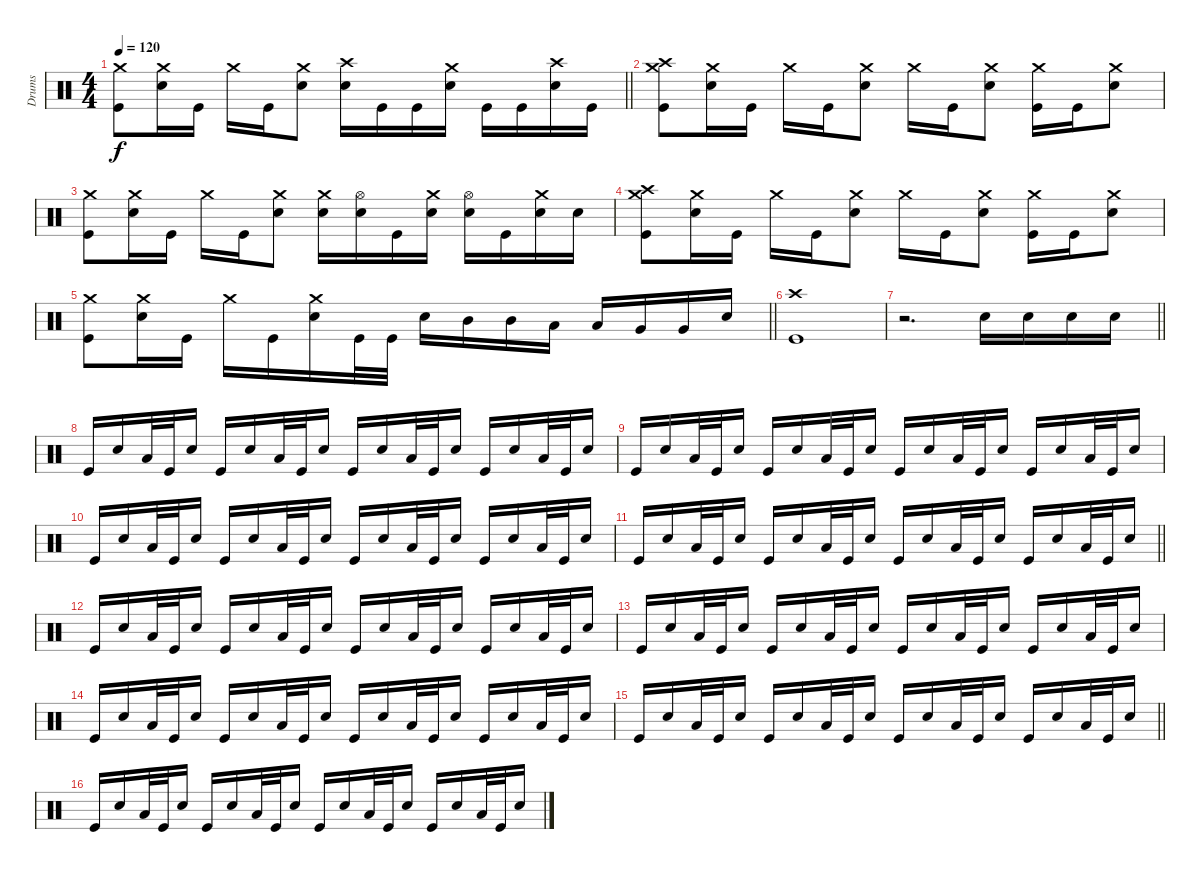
\track ("Drums" "Drums") {instrument percussion}
\staff
\articulation defaults
\ts (4 4)
\tempo 120
\clef neutral
\barLineRight lightlight
\ks c
("Crash medium (hit)" "Kick (hit)").8{dy f} ("Crash medium (hit)" "Electric Snare (hit)").16 "Kick (hit)".16 "Crash medium (hit)".16 "Kick (hit)".16 ("Crash medium (hit)" "Electric Snare (hit)").8 ("Crash high (hit)" "Electric Snare (hit)").16 "Kick (hit)".16 "Kick (hit)".16 ("Crash medium (hit)" "Electric Snare (hit)").16 "Kick (hit)".16 "Kick (hit)".16 ("Crash high (hit)" "Electric Snare (hit)").16 "Kick (hit)".16 |
("Crash high (hit)" "Crash medium (hit)" "Kick (hit)").8 ("Crash medium (hit)" "Electric Snare (hit)").16 "Kick (hit)".16 "Crash medium (hit)".16 "Kick (hit)".16 ("Crash medium (hit)" "Electric Snare (hit)").8 "Crash medium (hit)".16 "Kick (hit)".16 ("Crash medium (hit)" "Electric Snare (hit)").8 ("Crash medium (hit)" "Kick (hit)").16 "Kick (hit)".16 ("Crash medium (hit)" "Electric Snare (hit)").8 |
("Crash medium (hit)" "Kick (hit)").8 ("Crash medium (hit)" "Electric Snare (hit)").16 "Kick (hit)".16 "Crash medium (hit)".16 "Kick (hit)".16 ("Crash medium (hit)" "Electric Snare (hit)").8 ("Crash medium (hit)" "Electric Snare (hit)").16 ("Hi-Hat (open)" "Electric Snare (hit)").16 "Kick (hit)".16 ("Crash medium (hit)" "Electric Snare (hit)").16 ("Hi-Hat (open)" "Electric Snare (hit)").16 "Kick (hit)".16 ("Crash medium (hit)" "Electric Snare (hit)").16 "Electric Snare (hit)".16 |
("Crash high (hit)" "Crash medium (hit)" "Kick (hit)").8 ("Crash medium (hit)" "Electric Snare (hit)").16 "Kick (hit)".16 "Crash medium (hit)".16 "Kick (hit)".16 ("Crash medium (hit)" "Electric Snare (hit)").8 "Crash medium (hit)".16 "Kick (hit)".16 ("Crash medium (hit)" "Electric Snare (hit)").8 ("Crash medium (hit)" "Kick (hit)").16 "Kick (hit)".16 ("Crash medium (hit)" "Electric Snare (hit)").8 |
\barLineRight lightlight
("Crash medium (hit)" "Kick (hit)").8 ("Crash medium (hit)" "Electric Snare (hit)").16 "Kick (hit)".16 "Crash medium (hit)".16 "Kick (hit)".16 ("Crash medium (hit)" "Electric Snare (hit)").16 "Kick (hit)".32 "Kick (hit)".32 "Electric Snare (hit)".16 "Mid Tom (hit)".16 "Mid Tom (hit)".16 "Low Tom (hit)".16 "Low Tom (hit)".16 "Very Low Tom (hit)".16 "Very Low Tom (hit)".16 "Electric Snare (hit)".16 |
("Crash high (hit)" "Kick (hit)").1 |
\barLineRight lightlight
r.2{d} "Electric Snare (hit)".16 "Electric Snare (hit)".16 "Electric Snare (hit)".16 "Electric Snare (hit)".16 |
\section ("" "")
"Kick (hit)".16 "Electric Snare (hit)".16 "Low Floor Tom (hit)".32 "Kick (hit)".32 "Electric Snare (hit)".16 "Kick (hit)".16 "Electric Snare (hit)".16 "Low Floor Tom (hit)".32 "Kick (hit)".32 "Electric Snare (hit)".16 "Kick (hit)".16 "Electric Snare (hit)".16 "Low Floor Tom (hit)".32 "Kick (hit)".32 "Electric Snare (hit)".16 "Kick (hit)".16 "Electric Snare (hit)".16 "Low Floor Tom (hit)".32 "Kick (hit)".32 "Electric Snare (hit)".16 |
"Kick (hit)".16 "Electric Snare (hit)".16 "Low Floor Tom (hit)".32 "Kick (hit)".32 "Electric Snare (hit)".16 "Kick (hit)".16 "Electric Snare (hit)".16 "Low Floor Tom (hit)".32 "Kick (hit)".32 "Electric Snare (hit)".16 "Kick (hit)".16 "Electric Snare (hit)".16 "Low Floor Tom (hit)".32 "Kick (hit)".32 "Electric Snare (hit)".16 "Kick (hit)".16 "Electric Snare (hit)".16 "Low Floor Tom (hit)".32 "Kick (hit)".32 "Electric Snare (hit)".16 |
"Kick (hit)".16 "Electric Snare (hit)".16 "Low Floor Tom (hit)".32 "Kick (hit)".32 "Electric Snare (hit)".16 "Kick (hit)".16 "Electric Snare (hit)".16 "Low Floor Tom (hit)".32 "Kick (hit)".32 "Electric Snare (hit)".16 "Kick (hit)".16 "Electric Snare (hit)".16 "Low Floor Tom (hit)".32 "Kick (hit)".32 "Electric Snare (hit)".16 "Kick (hit)".16 "Electric Snare (hit)".16 "Low Floor Tom (hit)".32 "Kick (hit)".32 "Electric Snare (hit)".16 |
\barLineRight lightlight "Kick (hit)".16 "Electric Snare (hit)".16 "Low Floor Tom (hit)".32 "Kick (hit)".32 "Electric Snare (hit)".16 "Kick (hit)".16 "Electric Snare (hit)".16 "Low Floor Tom (hit)".32 "Kick (hit)".32 "Electric Snare (hit)".16 "Kick (hit)".16 "Electric Snare (hit)".16 "Low Floor Tom (hit)".32 "Kick (hit)".32 "Electric Snare (hit)".16 "Kick (hit)".16 "Electric Snare (hit)".16 "Low Floor Tom (hit)".32 "Kick (hit)".32 "Electric Snare (hit)".16
|
"Kick (hit)".16 "Electric Snare (hit)".16 "Low Floor Tom (hit)".32 "Kick (hit)".32 "Electric Snare (hit)".16 "Kick (hit)".16 "Electric Snare (hit)".16 "Low Floor Tom (hit)".32 "Kick (hit)".32 "Electric Snare (hit)".16 "Kick (hit)".16 "Electric Snare (hit)".16 "Low Floor Tom (hit)".32 "Kick (hit)".32 "Electric Snare (hit)".16 "Kick (hit)".16 "Electric Snare (hit)".16 "Low Floor Tom (hit)".32 "Kick (hit)".32 "Electric Snare (hit)".16 |
"Kick (hit)".16 "Electric Snare (hit)".16 "Low Floor Tom (hit)".32 "Kick (hit)".32 "Electric Snare (hit)".16 "Kick (hit)".16 "Electric Snare (hit)".16 "Low Floor Tom (hit)".32 "Kick (hit)".32 "Electric Snare (hit)".16 "Kick (hit)".16 "Electric Snare (hit)".16 "Low Floor Tom (hit)".32 "Kick (hit)".32 "Electric Snare (hit)".16 "Kick (hit)".16 "Electric Snare (hit)".16 "Low Floor Tom (hit)".32 "Kick (hit)".32 "Electric Snare (hit)".16 |
"Kick (hit)".16 "Electric Snare (hit)".16 "Low Floor Tom (hit)".32 "Kick (hit)".32 "Electric Snare (hit)".16 "Kick (hit)".16 "Electric Snare (hit)".16 "Low Floor Tom (hit)".32 "Kick (hit)".32 "Electric Snare (hit)".16 "Kick (hit)".16 "Electric Snare (hit)".16 "Low Floor Tom (hit)".32 "Kick (hit)".32 "Electric Snare (hit)".16 "Kick (hit)".16 "Electric Snare (hit)".16 "Low Floor Tom (hit)".32 "Kick (hit)".32 "Electric Snare (hit)".16 |
\barLineRight lightlight "Kick (hit)".16 "Electric Snare (hit)".16 "Low Floor Tom (hit)".32 "Kick (hit)".32 "Electric Snare (hit)".16 "Kick (hit)".16 "Electric Snare (hit)".16 "Low Floor Tom (hit)".32 "Kick (hit)".32 "Electric Snare (hit)".16 "Kick (hit)".16 "Electric Snare (hit)".16 "Low Floor Tom (hit)".32 "Kick (hit)".32 "Electric Snare (hit)".16 "Kick (hit)".16 "Electric Snare (hit)".16 "Low Floor Tom (hit)".32 "Kick (hit)".32 "Electric Snare (hit)".16
|
"Kick (hit)".16 "Electric Snare (hit)".16 "Low Floor Tom (hit)".32 "Kick (hit)".32 "Electric Snare (hit)".16 "Kick (hit)".16 "Electric Snare (hit)".16 "Low Floor Tom (hit)".32 "Kick (hit)".32 "Electric Snare (hit)".16 "Kick (hit)".16 "Electric Snare (hit)".16 "Low Floor Tom (hit)".32 "Kick (hit)".32 "Electric Snare (hit)".16 "Kick (hit)".16 "Electric Snare (hit)".16 "Low Floor Tom (hit)".32 "Kick (hit)".32 "Electric Snare (hit)".16
